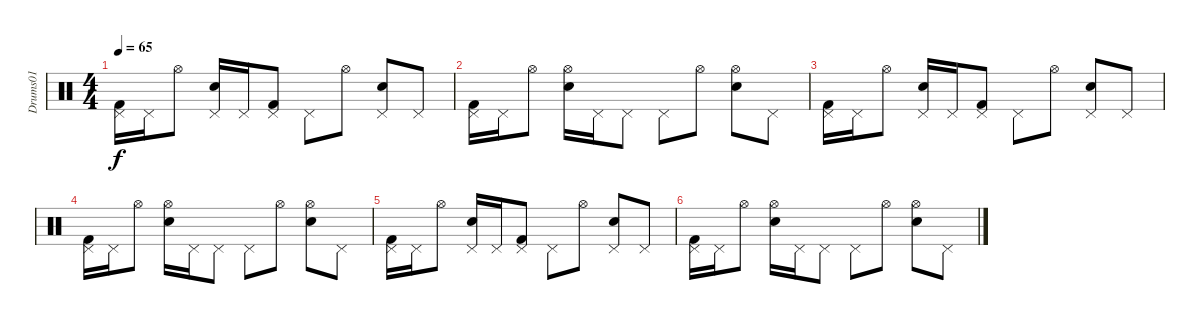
\track ("Drums01" "Drums01") {instrument percussion}
\staff {score}
\articulation defaults
\ts (4 4)
\tempo 65
\clef neutral
\ks c
("Pedal Hi-Hat (hit)" "Kick (hit) 2").16{dy f} "Pedal Hi-Hat (hit)".16 "Hi-Hat (open)".8 ("Pedal Hi-Hat (hit)" "Snare (hit) 2").16 "Pedal Hi-Hat (hit)".16 ("Pedal Hi-Hat (hit)" "Kick (hit) 2").8 "Pedal Hi-Hat (hit)".8 "Hi-Hat (open)".8 ("Pedal Hi-Hat (hit)" "Snare (hit) 2").8 "Pedal Hi-Hat (hit)".8 |
("Pedal Hi-Hat (hit)" "Kick (hit) 2").16 "Pedal Hi-Hat (hit)".16 "Hi-Hat (open)".8 ("Hi-Hat (open)" "Snare (hit) 2").16 "Pedal Hi-Hat (hit)".16 "Pedal Hi-Hat (hit)".8 "Pedal Hi-Hat (hit)".8 "Hi-Hat (open)".8 ("Hi-Hat (open)" "Snare (hit) 2").8 "Pedal Hi-Hat (hit)".8 |
("Pedal Hi-Hat (hit)" "Kick (hit) 2").16 "Pedal Hi-Hat (hit)".16 "Hi-Hat (open)".8 ("Pedal Hi-Hat (hit)" "Snare (hit) 2").16 "Pedal Hi-Hat (hit)".16 ("Pedal Hi-Hat (hit)" "Kick (hit) 2").8 "Pedal Hi-Hat (hit)".8 "Hi-Hat (open)".8 ("Pedal Hi-Hat (hit)" "Snare (hit) 2").8 "Pedal Hi-Hat (hit)".8 |
("Pedal Hi-Hat (hit)" "Kick (hit) 2").16 "Pedal Hi-Hat (hit)".16 "Hi-Hat (open)".8 ("Hi-Hat (open)" "Snare (hit) 2").16 "Pedal Hi-Hat (hit)".16 "Pedal Hi-Hat (hit)".8 "Pedal Hi-Hat (hit)".8 "Hi-Hat (open)".8 ("Hi-Hat (open)" "Snare (hit) 2").8 "Pedal Hi-Hat (hit)".8 |
("Pedal Hi-Hat (hit)" "Kick (hit) 2").16 "Pedal Hi-Hat (hit)".16 "Hi-Hat (open)".8 ("Pedal Hi-Hat (hit)" "Snare (hit) 2").16 "Pedal Hi-Hat (hit)".16 ("Pedal Hi-Hat (hit)" "Kick (hit) 2").8 "Pedal Hi-Hat (hit)".8 "Hi-Hat (open)".8 ("Pedal Hi-Hat (hit)" "Snare (hit) 2").8 "Pedal Hi-Hat (hit)".8 |
("Pedal Hi-Hat (hit)" "Kick (hit) 2").16 "Pedal Hi-Hat (hit)".16 "Hi-Hat (open)".8 ("Hi-Hat (open)" "Snare (hit) 2").16 "Pedal Hi-Hat (hit)".16 "Pedal Hi-Hat (hit)".8 "Pedal Hi-Hat (hit)".8 "Hi-Hat (open)".8 ("Hi-Hat (open)" "Snare (hit) 2").8 "Pedal Hi-Hat (hit)".8
